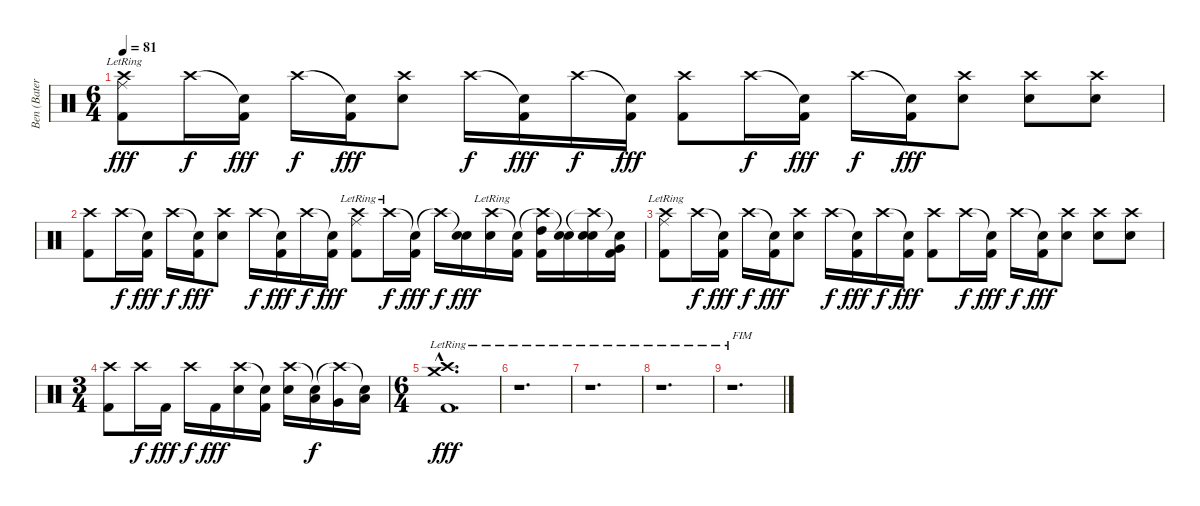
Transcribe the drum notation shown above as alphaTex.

\track ("Ben (Bateria)" "Ben (Bater") {instrument percussion}
\staff {score}
\articulation defaults
\ts (6 4)
\tempo 81
\clef neutral
\ks c
("Crash high (hit)" "Ride (middle)"{lr} "Kick (hit) 2").8{dy fff} "Crash high (hit)".16{dy f} ("Snare (hit)"{t} "Kick (hit) 2").16{dy fff} "Crash high (hit)".16{dy f} ("Snare (hit)"{t} "Kick (hit) 2").16{dy fff} ("Crash high (hit)" "Snare (hit) 2").8 "Crash high (hit)".16{dy f} ("Snare (hit)"{t} "Kick (hit) 2").16{dy fff} "Crash high (hit)".16{dy f} ("Snare (hit)"{t} "Kick (hit) 2").16{dy fff} ("Crash high (hit)" "Kick (hit) 2").8 "Crash high (hit)".16{dy f} ("Snare (hit)"{t} "Kick (hit) 2").16{dy fff} "Crash high (hit)".16{dy f} ("Snare (hit)"{t} "Kick (hit) 2").16{dy fff} ("Crash high (hit)" "Snare (hit) 2").8 ("Crash high (hit)" "Snare (hit) 2").8 ("Crash high (hit)" "Snare (hit) 2").8 |
("Crash high (hit)" "Kick (hit) 2").8 "Crash high (hit)".16{dy f} ("Snare (hit)"{t} "Kick (hit) 2").16{dy fff} "Crash high (hit)".16{dy f} ("Snare (hit)"{t} "Kick (hit) 2").16{dy fff} ("Crash high (hit)" "Snare (hit) 2").8 "Crash high (hit)".16{dy f} ("Snare (hit)"{t} "Kick (hit) 2").16{dy fff} "Crash high (hit)".16{dy f} ("Snare (hit)"{t} "Kick (hit) 2").16{dy fff} ("Crash high (hit)" "Ride (middle)"{lr} "Kick (hit) 2").8 "Crash high (hit)"{lr}.16{dy f} ("Snare (hit)"{t} "Kick (hit) 2").16{dy fff} "Crash high (hit)"{t}.16{dy f} ("Snare (hit)"{t} "Snare (hit) 2").16{dy fff} ("Crash high (hit)"{lr} "Snare (hit) 2").16 ("Snare (hit)"{t} "Kick (hit) 2").16 ("Crash high (hit)"{t} "High Tom (hit)" "Kick (hit) 2").16 ("Snare (hit)"{t} "Snare (hit) 2").16 ("Crash high (hit)"{t} "Snare (hit) 2" "Snare (hit) 2").16 ("Snare (hit)"{t} "Very Low Tom (hit)" "Kick (hit) 2").16 |
("Crash high (hit)" "Ride (middle)"{lr} "Kick (hit) 2").8 "Crash high (hit)".16{dy f} ("Snare (hit)"{t} "Kick (hit) 2").16{dy fff} "Crash high (hit)".16{dy f} ("Snare (hit)"{t} "Kick (hit) 2").16{dy fff} ("Crash high (hit)" "Snare (hit) 2").8 "Crash high (hit)".16{dy f} ("Snare (hit)"{t} "Kick (hit) 2").16{dy fff} "Crash high (hit)".16{dy f} ("Snare (hit)"{t} "Kick (hit) 2").16{dy fff} ("Crash high (hit)" "Kick (hit) 2").8 "Crash high (hit)".16{dy f} ("Snare (hit)"{t} "Kick (hit) 2").16{dy fff} "Crash high (hit)".16{dy f} ("Snare (hit)"{t} "Kick (hit) 2").16{dy fff} ("Crash high (hit)" "Snare (hit) 2").8 ("Crash high (hit)" "Snare (hit) 2").8 ("Crash high (hit)" "Snare (hit) 2").8 |
\ts (3 4)
("Crash high (hit)" "Kick (hit) 2").8 "Crash high (hit)".16{dy f} "Kick (hit) 2".16{dy fff} "Crash high (hit)".16{dy f} "Kick (hit) 2".16{dy fff} ("Crash high (hit)" "Snare (hit) 2").16 ("Snare (hit)"{t} "Kick (hit) 2").16 ("Crash high (hit)" "Snare (hit) 2").16 ("Snare (hit)"{t} "Low Tom (hit)").16{dy f} ("Crash high (hit)"{t} "Very Low Tom (hit)").16 ("Snare (hit)"{t} "Low Floor Tom (hit)").16 |
\ts (6 4)
("Crash high (hit)"{hac lr} "Crash medium (hit)"{hac lr} "Kick (hit) 2"{hac}).1{d dy fff} |
r.1{d} |
r.1{d} |
r.1{d} |
r.1{d txt "FIM"}
